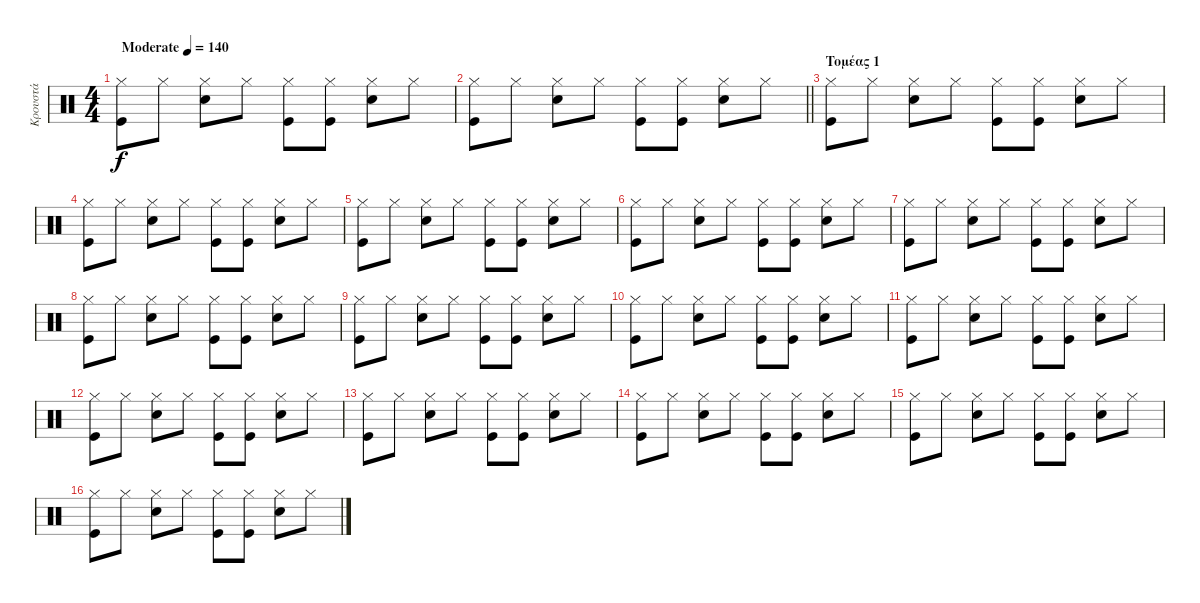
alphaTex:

\track ("Κρουστά" "Κρουστά") {instrument percussion}
\staff {score}
\articulation defaults
\ts (4 4)
\tempo (140 "Moderate")
\clef neutral
\ks c
("Hi-Hat (closed)" "Kick (hit)").8{dy f} "Hi-Hat (closed)".8 ("Hi-Hat (closed)" "Snare (hit) 2").8 "Hi-Hat (closed)".8 ("Hi-Hat (closed)" "Kick (hit)").8 ("Hi-Hat (closed)" "Kick (hit)").8 ("Hi-Hat (closed)" "Snare (hit) 2").8 "Hi-Hat (closed)".8 |
\barLineRight lightlight
("Hi-Hat (closed)" "Kick (hit)").8 "Hi-Hat (closed)".8 ("Hi-Hat (closed)" "Snare (hit) 2").8 "Hi-Hat (closed)".8 ("Hi-Hat (closed)" "Kick (hit)").8 ("Hi-Hat (closed)" "Kick (hit)").8 ("Hi-Hat (closed)" "Snare (hit) 2").8 "Hi-Hat (closed)".8 |
\section ("" "Τομέας 1")
("Hi-Hat (closed)" "Kick (hit)").8 "Hi-Hat (closed)".8 ("Hi-Hat (closed)" "Snare (hit) 2").8 "Hi-Hat (closed)".8 ("Hi-Hat (closed)" "Kick (hit)").8 ("Hi-Hat (closed)" "Kick (hit)").8 ("Hi-Hat (closed)" "Snare (hit) 2").8 "Hi-Hat (closed)".8 |
("Hi-Hat (closed)" "Kick (hit)").8 "Hi-Hat (closed)".8 ("Hi-Hat (closed)" "Snare (hit) 2").8 "Hi-Hat (closed)".8 ("Hi-Hat (closed)" "Kick (hit)").8 ("Hi-Hat (closed)" "Kick (hit)").8 ("Hi-Hat (closed)" "Snare (hit) 2").8 "Hi-Hat (closed)".8 |
("Hi-Hat (closed)" "Kick (hit)").8 "Hi-Hat (closed)".8 ("Hi-Hat (closed)" "Snare (hit) 2").8 "Hi-Hat (closed)".8 ("Hi-Hat (closed)" "Kick (hit)").8 ("Hi-Hat (closed)" "Kick (hit)").8 ("Hi-Hat (closed)" "Snare (hit) 2").8 "Hi-Hat (closed)".8 |
("Hi-Hat (closed)" "Kick (hit)").8 "Hi-Hat (closed)".8 ("Hi-Hat (closed)" "Snare (hit) 2").8 "Hi-Hat (closed)".8 ("Hi-Hat (closed)" "Kick (hit)").8 ("Hi-Hat (closed)" "Kick (hit)").8 ("Hi-Hat (closed)" "Snare (hit) 2").8 "Hi-Hat (closed)".8 |
("Hi-Hat (closed)" "Kick (hit)").8 "Hi-Hat (closed)".8 ("Hi-Hat (closed)" "Snare (hit) 2").8 "Hi-Hat (closed)".8 ("Hi-Hat (closed)" "Kick (hit)").8 ("Hi-Hat (closed)" "Kick (hit)").8 ("Hi-Hat (closed)" "Snare (hit) 2").8 "Hi-Hat (closed)".8 |
("Hi-Hat (closed)" "Kick (hit)").8 "Hi-Hat (closed)".8 ("Hi-Hat (closed)" "Snare (hit) 2").8 "Hi-Hat (closed)".8 ("Hi-Hat (closed)" "Kick (hit)").8 ("Hi-Hat (closed)" "Kick (hit)").8 ("Hi-Hat (closed)" "Snare (hit) 2").8 "Hi-Hat (closed)".8 |
("Hi-Hat (closed)" "Kick (hit)").8 "Hi-Hat (closed)".8 ("Hi-Hat (closed)" "Snare (hit) 2").8 "Hi-Hat (closed)".8 ("Hi-Hat (closed)" "Kick (hit)").8 ("Hi-Hat (closed)" "Kick (hit)").8 ("Hi-Hat (closed)" "Snare (hit) 2").8 "Hi-Hat (closed)".8 |
("Hi-Hat (closed)" "Kick (hit)").8 "Hi-Hat (closed)".8 ("Hi-Hat (closed)" "Snare (hit) 2").8 "Hi-Hat (closed)".8 ("Hi-Hat (closed)" "Kick (hit)").8 ("Hi-Hat (closed)" "Kick (hit)").8 ("Hi-Hat (closed)" "Snare (hit) 2").8 "Hi-Hat (closed)".8 |
("Hi-Hat (closed)" "Kick (hit)").8 "Hi-Hat (closed)".8 ("Hi-Hat (closed)" "Snare (hit) 2").8 "Hi-Hat (closed)".8 ("Hi-Hat (closed)" "Kick (hit)").8 ("Hi-Hat (closed)" "Kick (hit)").8 ("Hi-Hat (closed)" "Snare (hit) 2").8 "Hi-Hat (closed)".8 |
("Hi-Hat (closed)" "Kick (hit)").8 "Hi-Hat (closed)".8 ("Hi-Hat (closed)" "Snare (hit) 2").8 "Hi-Hat (closed)".8 ("Hi-Hat (closed)" "Kick (hit)").8 ("Hi-Hat (closed)" "Kick (hit)").8 ("Hi-Hat (closed)" "Snare (hit) 2").8 "Hi-Hat (closed)".8 |
("Hi-Hat (closed)" "Kick (hit)").8 "Hi-Hat (closed)".8 ("Hi-Hat (closed)" "Snare (hit) 2").8 "Hi-Hat (closed)".8 ("Hi-Hat (closed)" "Kick (hit)").8 ("Hi-Hat (closed)" "Kick (hit)").8 ("Hi-Hat (closed)" "Snare (hit) 2").8 "Hi-Hat (closed)".8 |
("Hi-Hat (closed)" "Kick (hit)").8 "Hi-Hat (closed)".8 ("Hi-Hat (closed)" "Snare (hit) 2").8 "Hi-Hat (closed)".8 ("Hi-Hat (closed)" "Kick (hit)").8 ("Hi-Hat (closed)" "Kick (hit)").8 ("Hi-Hat (closed)" "Snare (hit) 2").8 "Hi-Hat (closed)".8 |
("Hi-Hat (closed)" "Kick (hit)").8 "Hi-Hat (closed)".8 ("Hi-Hat (closed)" "Snare (hit) 2").8 "Hi-Hat (closed)".8 ("Hi-Hat (closed)" "Kick (hit)").8 ("Hi-Hat (closed)" "Kick (hit)").8 ("Hi-Hat (closed)" "Snare (hit) 2").8 "Hi-Hat (closed)".8 |
("Hi-Hat (closed)" "Kick (hit)").8 "Hi-Hat (closed)".8 ("Hi-Hat (closed)" "Snare (hit) 2").8 "Hi-Hat (closed)".8 ("Hi-Hat (closed)" "Kick (hit)").8 ("Hi-Hat (closed)" "Kick (hit)").8 ("Hi-Hat (closed)" "Snare (hit) 2").8 "Hi-Hat (closed)".8
